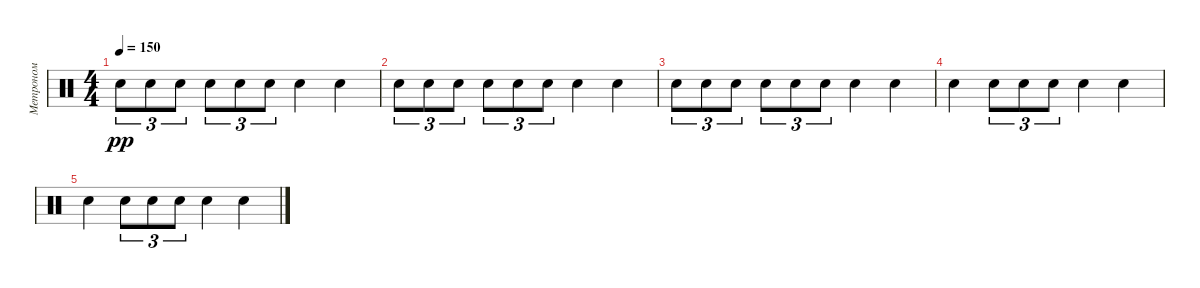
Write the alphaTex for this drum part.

\track ("Метроном" "Метроном") {mute instrument percussion}
\staff {score}
\articulation defaults
\ts (4 4)
\tempo 150
\clef neutral
\ks c "Snare (hit) 2".8{tu (3 2) dy pp} "Snare (hit) 2".8{tu (3 2)} "Snare (hit) 2".8{tu (3 2)} "Snare (hit) 2".8{tu (3 2)} "Snare (hit) 2".8{tu (3 2)} "Snare (hit) 2".8{tu (3 2)} "Snare (hit) 2".4 "Snare (hit) 2".4
|
"Snare (hit) 2".8{tu (3 2)} "Snare (hit) 2".8{tu (3 2)} "Snare (hit) 2".8{tu (3 2)} "Snare (hit) 2".8{tu (3 2)} "Snare (hit) 2".8{tu (3 2)} "Snare (hit) 2".8{tu (3 2)} "Snare (hit) 2".4 "Snare (hit) 2".4 |
"Snare (hit) 2".8{tu (3 2)} "Snare (hit) 2".8{tu (3 2)} "Snare (hit) 2".8{tu (3 2)} "Snare (hit) 2".8{tu (3 2)} "Snare (hit) 2".8{tu (3 2)} "Snare (hit) 2".8{tu (3 2)} "Snare (hit) 2".4 "Snare (hit) 2".4 |
"Snare (hit) 2".4 "Snare (hit) 2".8{tu (3 2)} "Snare (hit) 2".8{tu (3 2)} "Snare (hit) 2".8{tu (3 2)} "Snare (hit) 2".4 "Snare (hit) 2".4 |
"Snare (hit) 2".4 "Snare (hit) 2".8{tu (3 2)} "Snare (hit) 2".8{tu (3 2)} "Snare (hit) 2".8{tu (3 2)} "Snare (hit) 2".4 "Snare (hit) 2".4
